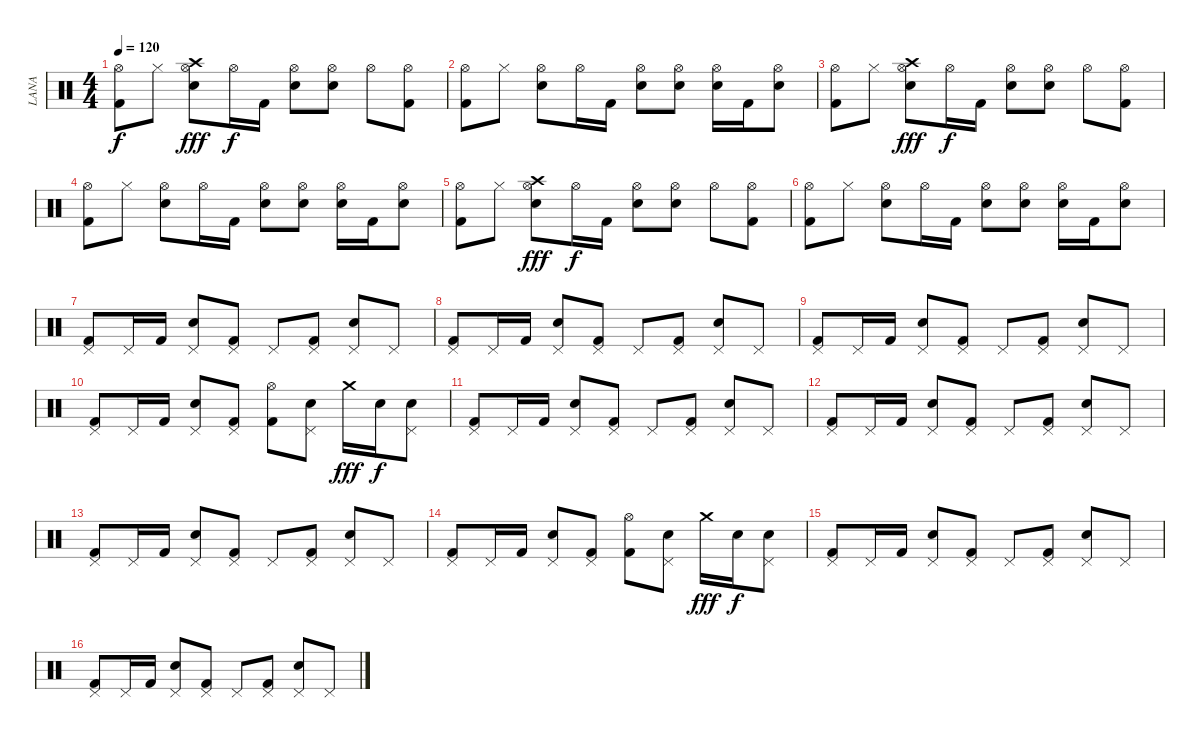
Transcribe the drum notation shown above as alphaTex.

\track ("LANA" "LANA") {instrument percussion}
\staff {score}
\articulation defaults
\ts (4 4)
\tempo 120
\clef neutral
\ks c
("Hi-Hat (open)" "Kick (hit) 2").8{dy f} "Hi-Hat (closed)".8 ("Crash high (hit)" "Hi-Hat (open)" "Electric Snare (hit)").8{dy fff} "Hi-Hat (open)".16{dy f} "Kick (hit) 2".16 ("Hi-Hat (open)" "Electric Snare (hit)").8 ("Hi-Hat (open)" "Electric Snare (hit)").8 "Hi-Hat (open)".8 ("Hi-Hat (open)" "Kick (hit) 2").8 |
("Hi-Hat (open)" "Kick (hit) 2").8 "Hi-Hat (closed)".8 ("Hi-Hat (open)" "Electric Snare (hit)").8 "Hi-Hat (open)".16 "Kick (hit) 2".16 ("Hi-Hat (open)" "Electric Snare (hit)").8 ("Hi-Hat (open)" "Electric Snare (hit)").8 ("Hi-Hat (open)" "Electric Snare (hit)").16 "Kick (hit) 2".16 ("Hi-Hat (open)" "Electric Snare (hit)").8 |
("Hi-Hat (open)" "Kick (hit) 2").8 "Hi-Hat (closed)".8 ("Crash high (hit)" "Hi-Hat (open)" "Electric Snare (hit)").8{dy fff} "Hi-Hat (open)".16{dy f} "Kick (hit) 2".16 ("Hi-Hat (open)" "Electric Snare (hit)").8 ("Hi-Hat (open)" "Electric Snare (hit)").8 "Hi-Hat (open)".8 ("Hi-Hat (open)" "Kick (hit) 2").8 |
("Hi-Hat (open)" "Kick (hit) 2").8 "Hi-Hat (closed)".8 ("Hi-Hat (open)" "Electric Snare (hit)").8 "Hi-Hat (open)".16 "Kick (hit) 2".16 ("Hi-Hat (open)" "Electric Snare (hit)").8 ("Hi-Hat (open)" "Electric Snare (hit)").8 ("Hi-Hat (open)" "Electric Snare (hit)").16 "Kick (hit) 2".16 ("Hi-Hat (open)" "Electric Snare (hit)").8 |
("Hi-Hat (open)" "Kick (hit) 2").8 "Hi-Hat (closed)".8 ("Crash high (hit)" "Hi-Hat (open)" "Electric Snare (hit)").8{dy fff} "Hi-Hat (open)".16{dy f} "Kick (hit) 2".16 ("Hi-Hat (open)" "Electric Snare (hit)").8 ("Hi-Hat (open)" "Electric Snare (hit)").8 "Hi-Hat (open)".8 ("Hi-Hat (open)" "Kick (hit) 2").8 |
("Hi-Hat (open)" "Kick (hit) 2").8 "Hi-Hat (closed)".8 ("Hi-Hat (open)" "Electric Snare (hit)").8 "Hi-Hat (open)".16 "Kick (hit) 2".16 ("Hi-Hat (open)" "Electric Snare (hit)").8 ("Hi-Hat (open)" "Electric Snare (hit)").8 ("Hi-Hat (open)" "Electric Snare (hit)").16 "Kick (hit) 2".16 ("Hi-Hat (open)" "Electric Snare (hit)").8 |
("Pedal Hi-Hat (hit)" "Kick (hit) 2").8 "Pedal Hi-Hat (hit)".16 "Kick (hit) 2".16 ("Pedal Hi-Hat (hit)" "Electric Snare (hit)").8 ("Pedal Hi-Hat (hit)" "Kick (hit) 2").8 "Pedal Hi-Hat (hit)".8 ("Pedal Hi-Hat (hit)" "Kick (hit) 2").8 ("Pedal Hi-Hat (hit)" "Electric Snare (hit)").8 "Pedal Hi-Hat (hit)".8 |
("Pedal Hi-Hat (hit)" "Kick (hit) 2").8 "Pedal Hi-Hat (hit)".16 "Kick (hit) 2".16 ("Pedal Hi-Hat (hit)" "Electric Snare (hit)").8 ("Pedal Hi-Hat (hit)" "Kick (hit) 2").8 "Pedal Hi-Hat (hit)".8 ("Pedal Hi-Hat (hit)" "Kick (hit) 2").8 ("Pedal Hi-Hat (hit)" "Electric Snare (hit)").8 "Pedal Hi-Hat (hit)".8 |
("Pedal Hi-Hat (hit)" "Kick (hit) 2").8 "Pedal Hi-Hat (hit)".16 "Kick (hit) 2".16 ("Pedal Hi-Hat (hit)" "Electric Snare (hit)").8 ("Pedal Hi-Hat (hit)" "Kick (hit) 2").8 "Pedal Hi-Hat (hit)".8 ("Pedal Hi-Hat (hit)" "Kick (hit) 2").8 ("Pedal Hi-Hat (hit)" "Electric Snare (hit)").8 "Pedal Hi-Hat (hit)".8 |
("Pedal Hi-Hat (hit)" "Kick (hit) 2").8 "Pedal Hi-Hat (hit)".16 "Kick (hit) 2".16 ("Pedal Hi-Hat (hit)" "Electric Snare (hit)").8 ("Pedal Hi-Hat (hit)" "Kick (hit) 2").8 ("Hi-Hat (open)" "Kick (hit) 2").8 ("Pedal Hi-Hat (hit)" "Electric Snare (hit)").8 "Crash medium (hit)".16{dy fff} "Electric Snare (hit)".16{dy f} ("Pedal Hi-Hat (hit)" "Electric Snare (hit)").8 |
("Pedal Hi-Hat (hit)" "Kick (hit) 2").8 "Pedal Hi-Hat (hit)".16 "Kick (hit) 2".16 ("Pedal Hi-Hat (hit)" "Electric Snare (hit)").8 ("Pedal Hi-Hat (hit)" "Kick (hit) 2").8 "Pedal Hi-Hat (hit)".8 ("Pedal Hi-Hat (hit)" "Kick (hit) 2").8 ("Pedal Hi-Hat (hit)" "Electric Snare (hit)").8 "Pedal Hi-Hat (hit)".8 |
("Pedal Hi-Hat (hit)" "Kick (hit) 2").8 "Pedal Hi-Hat (hit)".16 "Kick (hit) 2".16 ("Pedal Hi-Hat (hit)" "Electric Snare (hit)").8 ("Pedal Hi-Hat (hit)" "Kick (hit) 2").8 "Pedal Hi-Hat (hit)".8 ("Pedal Hi-Hat (hit)" "Kick (hit) 2").8 ("Pedal Hi-Hat (hit)" "Electric Snare (hit)").8 "Pedal Hi-Hat (hit)".8 |
("Pedal Hi-Hat (hit)" "Kick (hit) 2").8 "Pedal Hi-Hat (hit)".16 "Kick (hit) 2".16 ("Pedal Hi-Hat (hit)" "Electric Snare (hit)").8 ("Pedal Hi-Hat (hit)" "Kick (hit) 2").8 "Pedal Hi-Hat (hit)".8 ("Pedal Hi-Hat (hit)" "Kick (hit) 2").8 ("Pedal Hi-Hat (hit)" "Electric Snare (hit)").8 "Pedal Hi-Hat (hit)".8 |
("Pedal Hi-Hat (hit)" "Kick (hit) 2").8 "Pedal Hi-Hat (hit)".16 "Kick (hit) 2".16 ("Pedal Hi-Hat (hit)" "Electric Snare (hit)").8 ("Pedal Hi-Hat (hit)" "Kick (hit) 2").8 ("Hi-Hat (open)" "Kick (hit) 2").8 ("Pedal Hi-Hat (hit)" "Electric Snare (hit)").8 "Crash medium (hit)".16{dy fff} "Electric Snare (hit)".16{dy f} ("Pedal Hi-Hat (hit)" "Electric Snare (hit)").8 |
("Pedal Hi-Hat (hit)" "Kick (hit) 2").8 "Pedal Hi-Hat (hit)".16 "Kick (hit) 2".16 ("Pedal Hi-Hat (hit)" "Electric Snare (hit)").8 ("Pedal Hi-Hat (hit)" "Kick (hit) 2").8 "Pedal Hi-Hat (hit)".8 ("Pedal Hi-Hat (hit)" "Kick (hit) 2").8 ("Pedal Hi-Hat (hit)" "Electric Snare (hit)").8 "Pedal Hi-Hat (hit)".8 |
("Pedal Hi-Hat (hit)" "Kick (hit) 2").8 "Pedal Hi-Hat (hit)".16 "Kick (hit) 2".16 ("Pedal Hi-Hat (hit)" "Electric Snare (hit)").8 ("Pedal Hi-Hat (hit)" "Kick (hit) 2").8 "Pedal Hi-Hat (hit)".8 ("Pedal Hi-Hat (hit)" "Kick (hit) 2").8 ("Pedal Hi-Hat (hit)" "Electric Snare (hit)").8 "Pedal Hi-Hat (hit)".8
